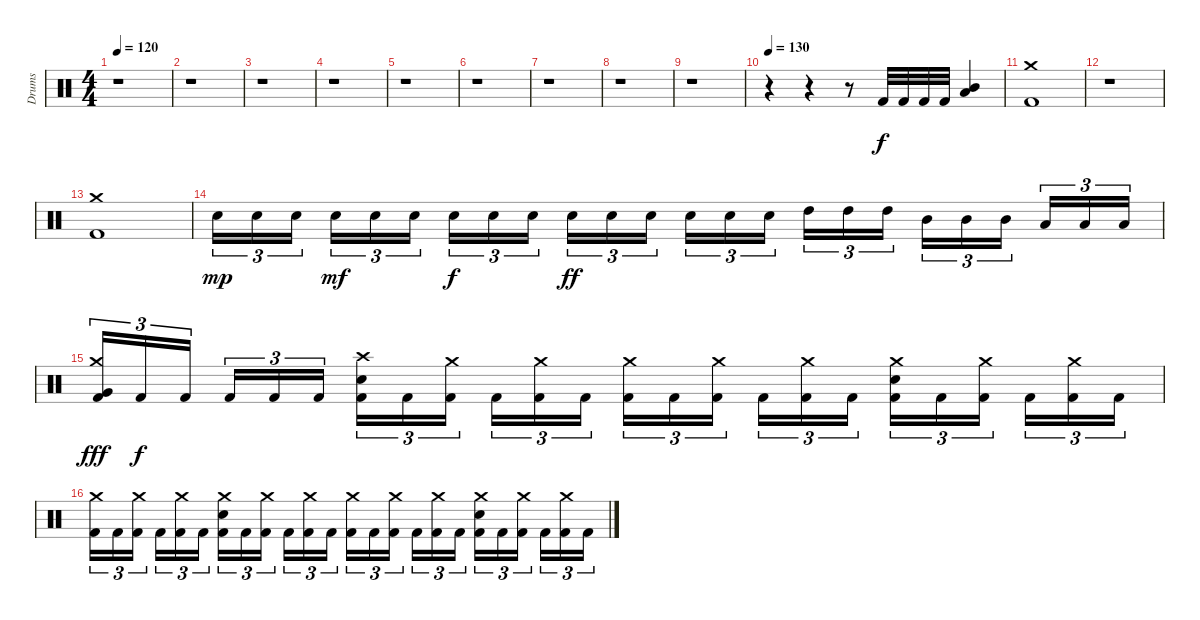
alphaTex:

\track ("Drums" "Drums") {instrument percussion}
\staff {score}
\articulation defaults
\ts (4 4)
\tempo 120
\clef neutral
\ks c
r.1{dy f} |
r.1 |
r.1 |
r.1 |
r.1 |
r.1 |
r.1 |
r.1 |
r.1 |
\tempo 130
r.4 r.4 r.8 "Kick (hit) 2".32 "Kick (hit) 2".32 "Kick (hit) 2".32 "Kick (hit) 2".32 ("Low Tom (hit)" "Mid Tom (hit)").4 |
("Kick (hit) 2" "Crash medium (hit)").1 |
r.1 |
("Kick (hit) 2" "Crash medium (hit)").1 |
"Electric Snare (hit)".16{tu (3 2) dy mp} "Electric Snare (hit)".16{tu (3 2)} "Electric Snare (hit)".16{tu (3 2)} "Electric Snare (hit)".16{tu (3 2) dy mf} "Electric Snare (hit)".16{tu (3 2)} "Electric Snare (hit)".16{tu (3 2)} "Electric Snare (hit)".16{tu (3 2) dy f} "Electric Snare (hit)".16{tu (3 2)} "Electric Snare (hit)".16{tu (3 2)} "Electric Snare (hit)".16{tu (3 2) dy ff} "Electric Snare (hit)".16{tu (3 2)} "Electric Snare (hit)".16{tu (3 2)} "Electric Snare (hit)".16{tu (3 2)} "Electric Snare (hit)".16{tu (3 2)} "Electric Snare (hit)".16{tu (3 2)} "High Tom (hit)".16{tu (3 2)} "High Tom (hit)".16{tu (3 2)} "High Tom (hit)".16{tu (3 2)} "Mid Tom (hit)".16{tu (3 2)} "Mid Tom (hit)".16{tu (3 2)} "Mid Tom (hit)".16{tu (3 2)} "Low Tom (hit)".16{tu (3 2)} "Low Tom (hit)".16{tu (3 2)} "Low Tom (hit)".16{tu (3 2)} |
("Kick (hit) 2" "Very Low Tom (hit)" "Crash medium (hit)").16{tu (3 2) dy fff} "Kick (hit) 2".16{tu (3 2) dy f} "Kick (hit) 2".16{tu (3 2)} "Kick (hit) 2".16{tu (3 2)} "Kick (hit) 2".16{tu (3 2)} "Kick (hit) 2".16{tu (3 2)} ("Kick (hit) 2" "Electric Snare (hit)" "Crash high (hit)").16{tu (3 2)} "Kick (hit) 2".16{tu (3 2)} ("Kick (hit) 2" "Crash medium (hit)").16{tu (3 2)} "Kick (hit) 2".16{tu (3 2)} ("Kick (hit) 2" "Crash medium (hit)").16{tu (3 2)} "Kick (hit) 2".16{tu (3 2)} ("Kick (hit) 2" "Crash medium (hit)").16{tu (3 2)} "Kick (hit) 2".16{tu (3 2)} ("Kick (hit) 2" "Crash medium (hit)").16{tu (3 2)} "Kick (hit) 2".16{tu (3 2)} ("Kick (hit) 2" "Crash medium (hit)").16{tu (3 2)} "Kick (hit) 2".16{tu (3 2)} ("Kick (hit) 2" "Electric Snare (hit)" "Crash medium (hit)").16{tu (3 2)} "Kick (hit) 2".16{tu (3 2)} ("Kick (hit) 2" "Crash medium (hit)").16{tu (3 2)} "Kick (hit) 2".16{tu (3 2)} ("Kick (hit) 2" "Crash medium (hit)").16{tu (3 2)} "Kick (hit) 2".16{tu (3 2)} |
("Kick (hit) 2" "Crash medium (hit)").16{tu (3 2)} "Kick (hit) 2".16{tu (3 2)} ("Kick (hit) 2" "Crash medium (hit)").16{tu (3 2)} "Kick (hit) 2".16{tu (3 2)} ("Kick (hit) 2" "Crash medium (hit)").16{tu (3 2)} "Kick (hit) 2".16{tu (3 2)} ("Kick (hit) 2" "Electric Snare (hit)" "Crash medium (hit)").16{tu (3 2)} "Kick (hit) 2".16{tu (3 2)} ("Kick (hit) 2" "Crash medium (hit)").16{tu (3 2)} "Kick (hit) 2".16{tu (3 2)} ("Kick (hit) 2" "Crash medium (hit)").16{tu (3 2)} "Kick (hit) 2".16{tu (3 2)} ("Kick (hit) 2" "Crash medium (hit)").16{tu (3 2)} "Kick (hit) 2".16{tu (3 2)} ("Kick (hit) 2" "Crash medium (hit)").16{tu (3 2)} "Kick (hit) 2".16{tu (3 2)} ("Kick (hit) 2" "Crash medium (hit)").16{tu (3 2)} "Kick (hit) 2".16{tu (3 2)} ("Kick (hit) 2" "Electric Snare (hit)" "Crash medium (hit)").16{tu (3 2)} "Kick (hit) 2".16{tu (3 2)} ("Kick (hit) 2" "Crash medium (hit)").16{tu (3 2)} "Kick (hit) 2".16{tu (3 2)} ("Kick (hit) 2" "Crash medium (hit)").16{tu (3 2)} "Kick (hit) 2".16{tu (3 2)}
